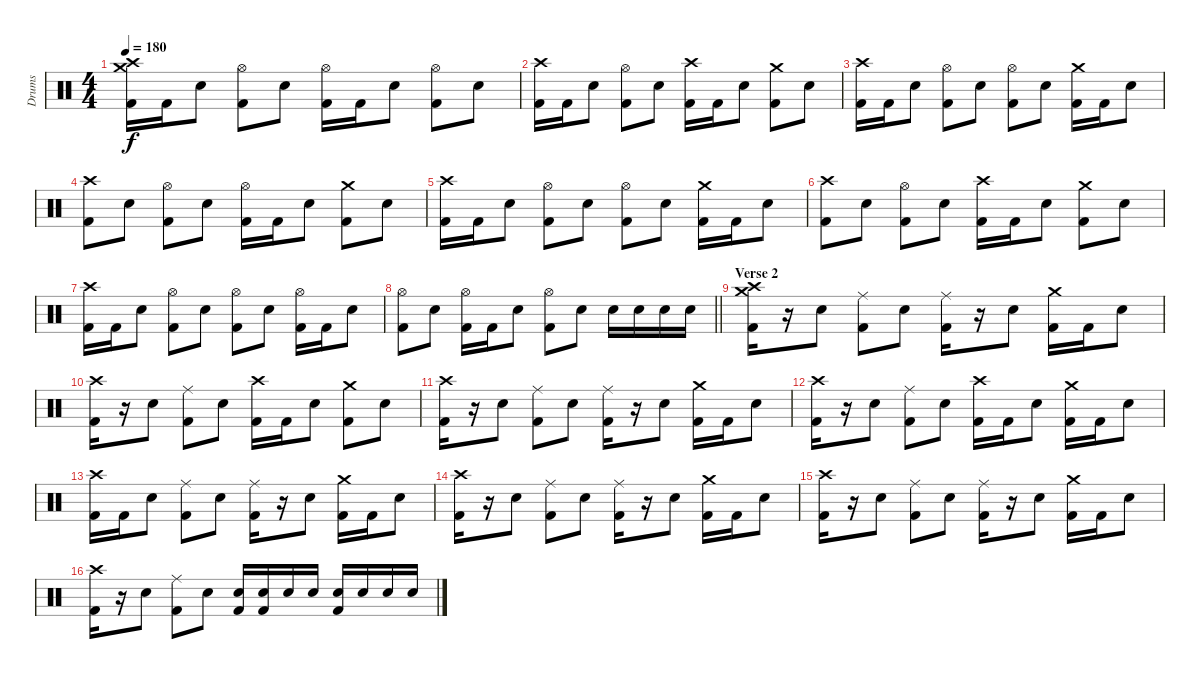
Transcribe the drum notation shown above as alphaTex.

\track ("Drums" "Drums") {instrument percussion}
\staff {score}
\articulation defaults
\ts (4 4)
\tempo 180
\clef neutral
\ks c
("Crash high (hit)" "Crash medium (hit)" "Kick (hit) 2").16{dy f} "Kick (hit) 2".16 "Electric Snare (hit)".8 ("Hi-Hat (open)" "Kick (hit) 2").8 "Electric Snare (hit)".8 ("Hi-Hat (open)" "Kick (hit) 2").16 "Kick (hit) 2".16 "Electric Snare (hit)".8 ("Hi-Hat (open)" "Kick (hit) 2").8 "Electric Snare (hit)".8 |
("Crash high (hit)" "Kick (hit) 2").16 "Kick (hit) 2".16 "Electric Snare (hit)".8 ("Hi-Hat (open)" "Kick (hit) 2").8 "Electric Snare (hit)".8 ("Crash high (hit)" "Kick (hit) 2").16 "Kick (hit) 2".16 "Electric Snare (hit)".8 ("Crash medium (hit)" "Kick (hit) 2").8 "Electric Snare (hit)".8 |
("Crash high (hit)" "Kick (hit) 2").16 "Kick (hit) 2".16 "Electric Snare (hit)".8 ("Hi-Hat (open)" "Kick (hit) 2").8 "Electric Snare (hit)".8 ("Hi-Hat (open)" "Kick (hit) 2").8 "Electric Snare (hit)".8 ("Crash medium (hit)" "Kick (hit) 2").16 "Kick (hit) 2".16 "Electric Snare (hit)".8 |
("Crash high (hit)" "Kick (hit) 2").8 "Electric Snare (hit)".8 ("Hi-Hat (open)" "Kick (hit) 2").8 "Electric Snare (hit)".8 ("Hi-Hat (open)" "Kick (hit) 2").16 "Kick (hit) 2".16 "Electric Snare (hit)".8 ("Crash medium (hit)" "Kick (hit) 2").8 "Electric Snare (hit)".8 |
("Crash high (hit)" "Kick (hit) 2").16 "Kick (hit) 2".16 "Electric Snare (hit)".8 ("Hi-Hat (open)" "Kick (hit) 2").8 "Electric Snare (hit)".8 ("Hi-Hat (open)" "Kick (hit) 2").8 "Electric Snare (hit)".8 ("Crash medium (hit)" "Kick (hit) 2").16 "Kick (hit) 2".16 "Electric Snare (hit)".8 |
("Crash high (hit)" "Kick (hit) 2").8 "Electric Snare (hit)".8 ("Hi-Hat (open)" "Kick (hit) 2").8 "Electric Snare (hit)".8 ("Crash high (hit)" "Kick (hit) 2").16 "Kick (hit) 2".16 "Electric Snare (hit)".8 ("Crash medium (hit)" "Kick (hit) 2").8 "Electric Snare (hit)".8 |
("Crash high (hit)" "Kick (hit) 2").16 "Kick (hit) 2".16 "Electric Snare (hit)".8 ("Hi-Hat (open)" "Kick (hit) 2").8 "Electric Snare (hit)".8 ("Hi-Hat (open)" "Kick (hit) 2").8 "Electric Snare (hit)".8 ("Hi-Hat (open)" "Kick (hit) 2").16 "Kick (hit) 2".16 "Electric Snare (hit)".8 |
\barLineRight lightlight
("Hi-Hat (open)" "Kick (hit) 2").8 "Electric Snare (hit)".8 ("Hi-Hat (open)" "Kick (hit) 2").16 "Kick (hit) 2".16 "Electric Snare (hit)".8 ("Hi-Hat (open)" "Kick (hit) 2").8 "Electric Snare (hit)".8 "Electric Snare (hit)".16 "Electric Snare (hit)".16 "Electric Snare (hit)".16 "Electric Snare (hit)".16 |
\section ("" "Verse 2")
("Crash high (hit)" "Crash medium (hit)" "Kick (hit) 2").16 r.16 "Electric Snare (hit)".8 ("Ride (middle)" "Kick (hit) 2").8 "Electric Snare (hit)".8 ("Ride (middle)" "Kick (hit) 2").16 r.16 "Electric Snare (hit)".8 ("Crash medium (hit)" "Kick (hit) 2").16 "Kick (hit) 2".16 "Electric Snare (hit)".8 |
("Crash high (hit)" "Kick (hit) 2").16 r.16 "Electric Snare (hit)".8 ("Ride (middle)" "Kick (hit) 2").8 "Electric Snare (hit)".8 ("Crash high (hit)" "Kick (hit) 2").16 "Kick (hit) 2".16 "Electric Snare (hit)".8 ("Crash medium (hit)" "Kick (hit) 2").8 "Electric Snare (hit)".8 |
("Crash high (hit)" "Kick (hit) 2").16 r.16 "Electric Snare (hit)".8 ("Ride (middle)" "Kick (hit) 2").8 "Electric Snare (hit)".8 ("Ride (middle)" "Kick (hit) 2").16 r.16 "Electric Snare (hit)".8 ("Crash medium (hit)" "Kick (hit) 2").16 "Kick (hit) 2".16 "Electric Snare (hit)".8 |
("Crash high (hit)" "Kick (hit) 2").16 r.16 "Electric Snare (hit)".8 ("Ride (middle)" "Kick (hit) 2").8 "Electric Snare (hit)".8 ("Crash high (hit)" "Kick (hit) 2").16 "Kick (hit) 2".16 "Electric Snare (hit)".8 ("Crash medium (hit)" "Kick (hit) 2").16 "Kick (hit) 2".16 "Electric Snare (hit)".8 |
("Crash high (hit)" "Kick (hit) 2").16 "Kick (hit) 2".16 "Electric Snare (hit)".8 ("Ride (middle)" "Kick (hit) 2").8 "Electric Snare (hit)".8 ("Ride (middle)" "Kick (hit) 2").16 r.16 "Electric Snare (hit)".8 ("Crash medium (hit)" "Kick (hit) 2").16 "Kick (hit) 2".16 "Electric Snare (hit)".8 |
("Crash high (hit)" "Kick (hit) 2").16 r.16 "Electric Snare (hit)".8 ("Ride (middle)" "Kick (hit) 2").8 "Electric Snare (hit)".8 ("Ride (middle)" "Kick (hit) 2").16 r.16 "Electric Snare (hit)".8 ("Crash medium (hit)" "Kick (hit) 2").16 "Kick (hit) 2".16 "Electric Snare (hit)".8 |
("Crash high (hit)" "Kick (hit) 2").16 r.16 "Electric Snare (hit)".8 ("Ride (middle)" "Kick (hit) 2").8 "Electric Snare (hit)".8 ("Ride (middle)" "Kick (hit) 2").16 r.16 "Electric Snare (hit)".8 ("Crash medium (hit)" "Kick (hit) 2").16 "Kick (hit) 2".16 "Electric Snare (hit)".8 |
("Crash high (hit)" "Kick (hit) 2").16 r.16 "Electric Snare (hit)".8 ("Ride (middle)" "Kick (hit) 2").8 "Electric Snare (hit)".8 ("Electric Snare (hit)" "Kick (hit) 2").16 ("Electric Snare (hit)" "Kick (hit) 2").16 "Electric Snare (hit)".16 "Electric Snare (hit)".16 ("Electric Snare (hit)" "Kick (hit) 2").16 "Electric Snare (hit)".16 "Electric Snare (hit)".16 "Electric Snare (hit)".16
